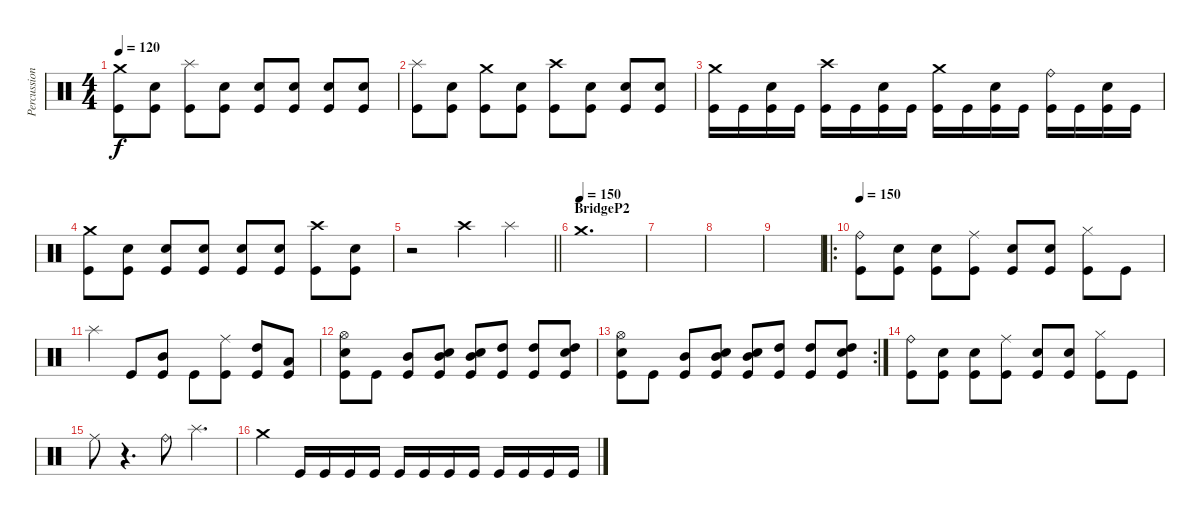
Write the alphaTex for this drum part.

\track ("Percussion" "Percussion") {instrument percussion}
\staff {score}
\articulation defaults
\ts (4 4)
\tempo 120
\clef neutral
\ks c
("Crash medium (hit)" "Kick (hit)").8{dy f} ("Electric Snare (hit)" "Kick (hit)").8 ("Splash (hit)" "Kick (hit)").8 ("Electric Snare (hit)" "Kick (hit)").8 ("Electric Snare (hit)" "Kick (hit)").8 ("Electric Snare (hit)" "Kick (hit)").8 ("Electric Snare (hit)" "Kick (hit)").8 ("Electric Snare (hit)" "Kick (hit)").8 |
("Splash (hit)" "Kick (hit)").8 ("Electric Snare (hit)" "Kick (hit)").8 ("Crash medium (hit)" "Kick (hit)").8 ("Electric Snare (hit)" "Kick (hit)").8 ("Crash high (hit)" "Kick (hit)").8 ("Electric Snare (hit)" "Kick (hit)").8 ("Electric Snare (hit)" "Kick (hit)").8 ("Electric Snare (hit)" "Kick (hit)").8 |
("Crash medium (hit)" "Kick (hit)").16 "Kick (hit)".16 ("Electric Snare (hit)" "Kick (hit)").16 "Kick (hit)".16 ("Crash high (hit)" "Kick (hit)").16 "Kick (hit)".16 ("Electric Snare (hit)" "Kick (hit)").16 "Kick (hit)".16 ("Crash medium (hit)" "Kick (hit)").16 "Kick (hit)".16 ("Electric Snare (hit)" "Kick (hit)").16 "Kick (hit)".16 ("Ride (bell)" "Kick (hit)").16 "Kick (hit)".16 ("Electric Snare (hit)" "Kick (hit)").16 "Kick (hit)".16 |
("Crash medium (hit)" "Kick (hit)").8 ("Electric Snare (hit)" "Kick (hit)").8 ("Electric Snare (hit)" "Kick (hit)").8 ("Electric Snare (hit)" "Kick (hit)").8 ("Electric Snare (hit)" "Kick (hit)").8 ("Electric Snare (hit)" "Kick (hit)").8 ("Crash high (hit)" "Kick (hit)").8 ("Electric Snare (hit)" "Kick (hit)").8 |
\barLineRight lightlight
r.2 "Crash high (hit)".4 "Splash (hit)".4 |
\section ("" "BridgeP2")
\tempo (150)
"Crash medium (hit)".1{d} |
|
|
|
\ro
\tempo 150
("Ride (bell)" "Kick (hit)").8 ("Electric Snare (hit)" "Kick (hit)").8 ("Electric Snare (hit)" "Kick (hit)").8 ("Ride (middle)" "Kick (hit)").8 ("Electric Snare (hit)" "Kick (hit)").8 ("Electric Snare (hit)" "Kick (hit)").8 ("Hi-Hat (closed)" "Kick (hit)").8 "Kick (hit)".8 |
"Splash (hit)".4 "Kick (hit)".8 ("Mid Tom (hit)" "Kick (hit)").8 "Kick (hit)".8 ("Ride (middle)" "Kick (hit)").8 ("High Tom (hit)" "Kick (hit)").8 ("Low Tom (hit)" "Kick (hit)").8 |
("Hi-Hat (open)" "Electric Snare (hit)" "Kick (hit)").8 "Kick (hit)".8 ("Mid Tom (hit)" "Kick (hit)").8 ("Mid Tom (hit)" "Electric Snare (hit)" "Kick (hit)").8 ("Mid Tom (hit)" "Electric Snare (hit)" "Kick (hit)").8 ("High Tom (hit)" "Kick (hit)").8 ("High Tom (hit)" "Kick (hit)").8 ("High Tom (hit)" "Electric Snare (hit)" "Kick (hit)").8 |
\rc 2
("Hi-Hat (open)" "Electric Snare (hit)" "Kick (hit)").8 "Kick (hit)".8 ("Mid Tom (hit)" "Kick (hit)").8 ("Mid Tom (hit)" "Electric Snare (hit)" "Kick (hit)").8 ("Mid Tom (hit)" "Electric Snare (hit)" "Kick (hit)").8 ("High Tom (hit)" "Kick (hit)").8 ("High Tom (hit)" "Kick (hit)").8 ("High Tom (hit)" "Electric Snare (hit)" "Kick (hit)").8 |
("Ride (bell)" "Kick (hit)").8 ("Electric Snare (hit)" "Kick (hit)").8 ("Electric Snare (hit)" "Kick (hit)").8 ("Ride (middle)" "Kick (hit)").8 ("Electric Snare (hit)" "Kick (hit)").8 ("Electric Snare (hit)" "Kick (hit)").8 ("Hi-Hat (closed)" "Kick (hit)").8 "Kick (hit)".8 |
"Ride (middle)".8 r.4{d} "Ride (bell)".8 "Splash (hit)".4{d} |
"Crash medium (hit)".4 "Kick (hit)".16 "Kick (hit)".16 "Kick (hit)".16 "Kick (hit)".16 "Kick (hit)".16 "Kick (hit)".16 "Kick (hit)".16 "Kick (hit)".16 "Kick (hit)".16 "Kick (hit)".16 "Kick (hit)".16 "Kick (hit)".16
